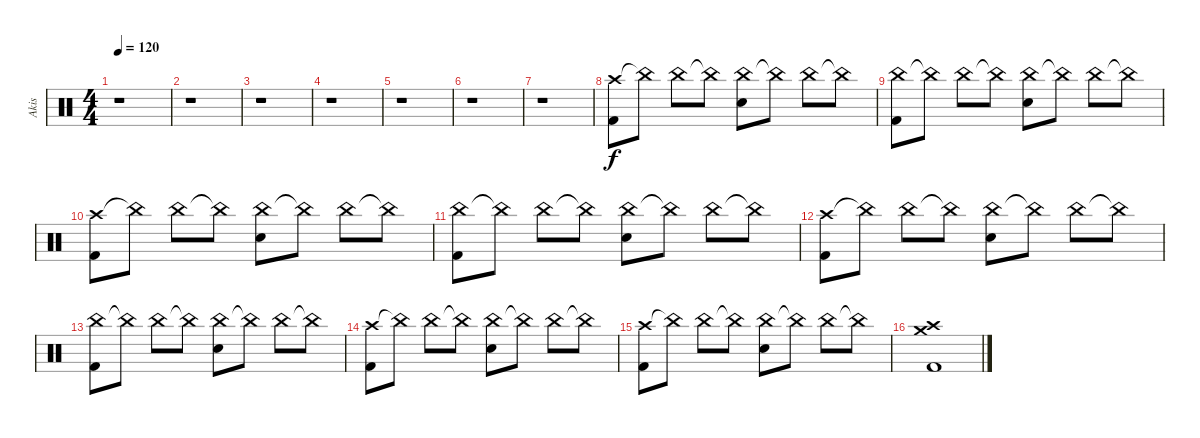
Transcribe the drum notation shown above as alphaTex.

\track ("Akis" "Akis") {instrument percussion}
\staff {score}
\articulation defaults
\ts (4 4)
\tempo 120
\clef neutral
\ks c
r.1{dy f} |
r.1 |
r.1 |
r.1 |
r.1 |
r.1 |
r.1 |
("Crash high (hit)" "Kick (hit) 2").8 "China (hit)"{t}.8 "China (hit)".8 "China (hit)"{t}.8 ("China (hit)" "Electric Snare (hit)").8 "China (hit)"{t}.8 "China (hit)".8 "China (hit)"{t}.8 |
("China (hit)" "Kick (hit) 2").8 "China (hit)"{t}.8 "China (hit)".8 "China (hit)"{t}.8 ("China (hit)" "Electric Snare (hit)").8 "China (hit)"{t}.8 "China (hit)".8 "China (hit)"{t}.8 |
("Crash high (hit)" "Kick (hit) 2").8 "China (hit)"{t}.8 "China (hit)".8 "China (hit)"{t}.8 ("China (hit)" "Electric Snare (hit)").8 "China (hit)"{t}.8 "China (hit)".8 "China (hit)"{t}.8 |
("China (hit)" "Kick (hit) 2").8 "China (hit)"{t}.8 "China (hit)".8 "China (hit)"{t}.8 ("China (hit)" "Electric Snare (hit)").8 "China (hit)"{t}.8 "China (hit)".8 "China (hit)"{t}.8 |
("Crash high (hit)" "Kick (hit) 2").8 "China (hit)"{t}.8 "China (hit)".8 "China (hit)"{t}.8 ("China (hit)" "Electric Snare (hit)").8 "China (hit)"{t}.8 "China (hit)".8 "China (hit)"{t}.8 |
("China (hit)" "Kick (hit) 2").8 "China (hit)"{t}.8 "China (hit)".8 "China (hit)"{t}.8 ("China (hit)" "Electric Snare (hit)").8 "China (hit)"{t}.8 "China (hit)".8 "China (hit)"{t}.8 |
("Crash high (hit)" "Kick (hit) 2").8 "China (hit)"{t}.8 "China (hit)".8 "China (hit)"{t}.8 ("China (hit)" "Electric Snare (hit)").8 "China (hit)"{t}.8 "China (hit)".8 "China (hit)"{t}.8 |
("Crash high (hit)" "Kick (hit) 2").8 "China (hit)"{t}.8 "China (hit)".8 "China (hit)"{t}.8 ("China (hit)" "Electric Snare (hit)").8 "China (hit)"{t}.8 "China (hit)".8 "China (hit)"{t}.8 |
("Crash high (hit)" "Crash medium (hit)" "Kick (hit) 2").1
